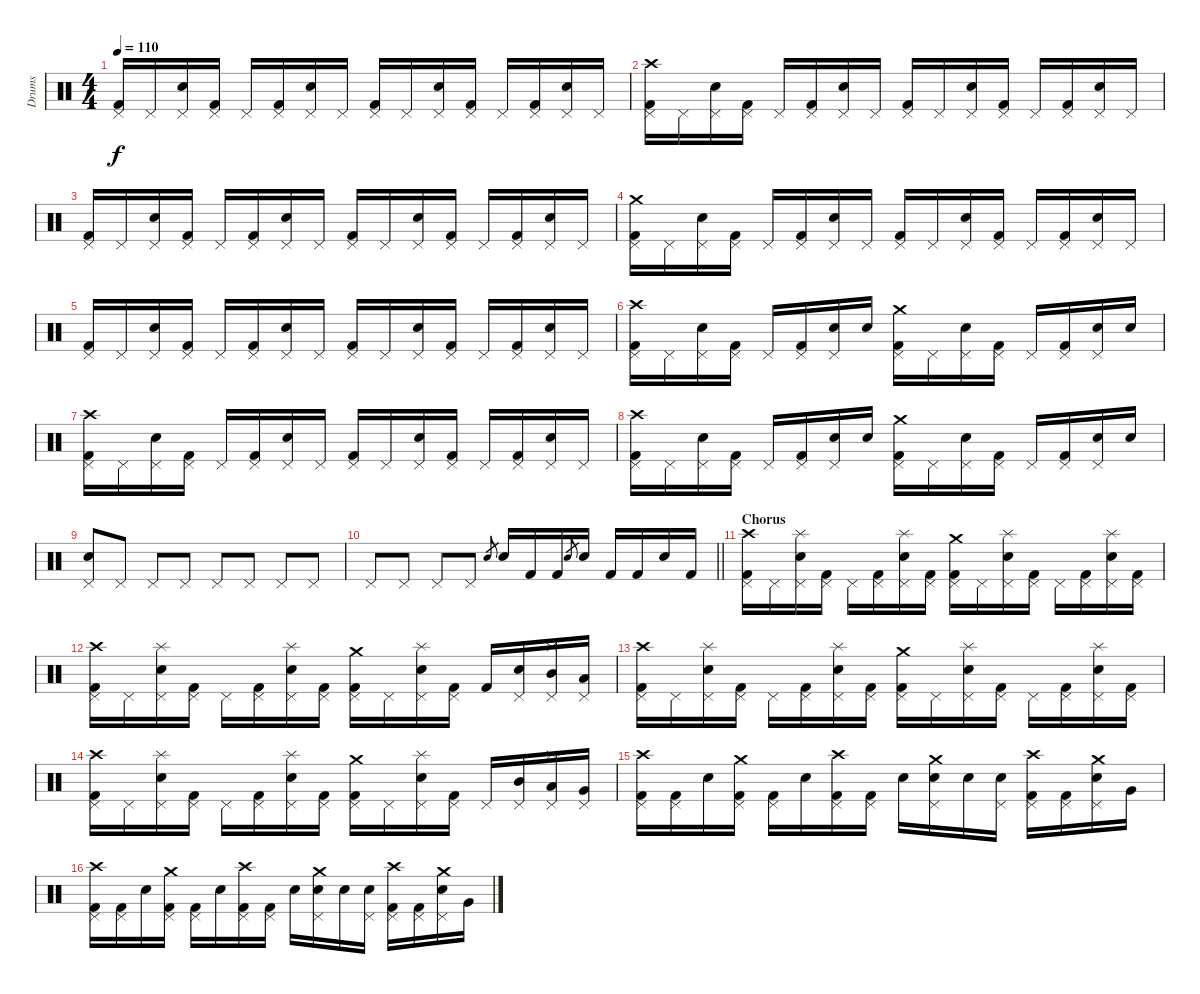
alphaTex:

\track ("Drums" "Drums") {instrument percussion}
\staff {score}
\articulation defaults
\ts (4 4)
\tempo 110
\clef neutral
\ks c
("Kick (hit) 2" "Pedal Hi-Hat (hit)").16{dy f} "Pedal Hi-Hat (hit)".16 ("Snare (hit) 2" "Pedal Hi-Hat (hit)").16 ("Kick (hit) 2" "Pedal Hi-Hat (hit)").16 "Pedal Hi-Hat (hit)".16 ("Kick (hit) 2" "Pedal Hi-Hat (hit)").16 ("Snare (hit) 2" "Pedal Hi-Hat (hit)").16 "Pedal Hi-Hat (hit)".16 ("Kick (hit) 2" "Pedal Hi-Hat (hit)").16 "Pedal Hi-Hat (hit)".16 ("Snare (hit) 2" "Pedal Hi-Hat (hit)").16 ("Kick (hit) 2" "Pedal Hi-Hat (hit)").16 "Pedal Hi-Hat (hit)".16 ("Kick (hit) 2" "Pedal Hi-Hat (hit)").16 ("Snare (hit) 2" "Pedal Hi-Hat (hit)").16 "Pedal Hi-Hat (hit)".16 |
("Kick (hit) 2" "Pedal Hi-Hat (hit)" "Crash high (hit)").16 "Pedal Hi-Hat (hit)".16 ("Snare (hit) 2" "Pedal Hi-Hat (hit)").16 ("Kick (hit) 2" "Pedal Hi-Hat (hit)").16 "Pedal Hi-Hat (hit)".16 ("Kick (hit) 2" "Pedal Hi-Hat (hit)").16 ("Snare (hit) 2" "Pedal Hi-Hat (hit)").16 "Pedal Hi-Hat (hit)".16 ("Kick (hit) 2" "Pedal Hi-Hat (hit)").16 "Pedal Hi-Hat (hit)".16 ("Snare (hit) 2" "Pedal Hi-Hat (hit)").16 ("Kick (hit) 2" "Pedal Hi-Hat (hit)").16 "Pedal Hi-Hat (hit)".16 ("Kick (hit) 2" "Pedal Hi-Hat (hit)").16 ("Snare (hit) 2" "Pedal Hi-Hat (hit)").16 "Pedal Hi-Hat (hit)".16 |
("Kick (hit) 2" "Pedal Hi-Hat (hit)").16 "Pedal Hi-Hat (hit)".16 ("Snare (hit) 2" "Pedal Hi-Hat (hit)").16 ("Kick (hit) 2" "Pedal Hi-Hat (hit)").16 "Pedal Hi-Hat (hit)".16 ("Kick (hit) 2" "Pedal Hi-Hat (hit)").16 ("Snare (hit) 2" "Pedal Hi-Hat (hit)").16 "Pedal Hi-Hat (hit)".16 ("Kick (hit) 2" "Pedal Hi-Hat (hit)").16 "Pedal Hi-Hat (hit)".16 ("Snare (hit) 2" "Pedal Hi-Hat (hit)").16 ("Kick (hit) 2" "Pedal Hi-Hat (hit)").16 "Pedal Hi-Hat (hit)".16 ("Kick (hit) 2" "Pedal Hi-Hat (hit)").16 ("Snare (hit) 2" "Pedal Hi-Hat (hit)").16 "Pedal Hi-Hat (hit)".16 |
("Kick (hit) 2" "Pedal Hi-Hat (hit)" "Crash medium (hit)").16 "Pedal Hi-Hat (hit)".16 ("Snare (hit) 2" "Pedal Hi-Hat (hit)").16 ("Kick (hit) 2" "Pedal Hi-Hat (hit)").16 "Pedal Hi-Hat (hit)".16 ("Kick (hit) 2" "Pedal Hi-Hat (hit)").16 ("Snare (hit) 2" "Pedal Hi-Hat (hit)").16 "Pedal Hi-Hat (hit)".16 ("Kick (hit) 2" "Pedal Hi-Hat (hit)").16 "Pedal Hi-Hat (hit)".16 ("Snare (hit) 2" "Pedal Hi-Hat (hit)").16 ("Kick (hit) 2" "Pedal Hi-Hat (hit)").16 "Pedal Hi-Hat (hit)".16 ("Kick (hit) 2" "Pedal Hi-Hat (hit)").16 ("Snare (hit) 2" "Pedal Hi-Hat (hit)").16 "Pedal Hi-Hat (hit)".16 |
("Kick (hit) 2" "Pedal Hi-Hat (hit)").16 "Pedal Hi-Hat (hit)".16 ("Snare (hit) 2" "Pedal Hi-Hat (hit)").16 ("Kick (hit) 2" "Pedal Hi-Hat (hit)").16 "Pedal Hi-Hat (hit)".16 ("Kick (hit) 2" "Pedal Hi-Hat (hit)").16 ("Snare (hit) 2" "Pedal Hi-Hat (hit)").16 "Pedal Hi-Hat (hit)".16 ("Kick (hit) 2" "Pedal Hi-Hat (hit)").16 "Pedal Hi-Hat (hit)".16 ("Snare (hit) 2" "Pedal Hi-Hat (hit)").16 ("Kick (hit) 2" "Pedal Hi-Hat (hit)").16 "Pedal Hi-Hat (hit)".16 ("Kick (hit) 2" "Pedal Hi-Hat (hit)").16 ("Snare (hit) 2" "Pedal Hi-Hat (hit)").16 "Pedal Hi-Hat (hit)".16 |
("Kick (hit) 2" "Pedal Hi-Hat (hit)" "Crash high (hit)").16 "Pedal Hi-Hat (hit)".16 ("Snare (hit) 2" "Pedal Hi-Hat (hit)").16 ("Kick (hit) 2" "Pedal Hi-Hat (hit)").16 "Pedal Hi-Hat (hit)".16 ("Kick (hit) 2" "Pedal Hi-Hat (hit)").16 ("Snare (hit) 2" "Pedal Hi-Hat (hit)").16 "Snare (hit) 2".16 ("Kick (hit) 2" "Pedal Hi-Hat (hit)" "Crash medium (hit)").16 "Pedal Hi-Hat (hit)".16 ("Snare (hit) 2" "Pedal Hi-Hat (hit)").16 ("Kick (hit) 2" "Pedal Hi-Hat (hit)").16 "Pedal Hi-Hat (hit)".16 ("Kick (hit) 2" "Pedal Hi-Hat (hit)").16 ("Snare (hit) 2" "Pedal Hi-Hat (hit)").16 "Snare (hit) 2".16 |
("Kick (hit) 2" "Pedal Hi-Hat (hit)" "Crash high (hit)").16 "Pedal Hi-Hat (hit)".16 ("Snare (hit) 2" "Pedal Hi-Hat (hit)").16 ("Kick (hit) 2" "Pedal Hi-Hat (hit)").16 "Pedal Hi-Hat (hit)".16 ("Kick (hit) 2" "Pedal Hi-Hat (hit)").16 ("Snare (hit) 2" "Pedal Hi-Hat (hit)").16 "Pedal Hi-Hat (hit)".16 ("Kick (hit) 2" "Pedal Hi-Hat (hit)").16 "Pedal Hi-Hat (hit)".16 ("Snare (hit) 2" "Pedal Hi-Hat (hit)").16 ("Kick (hit) 2" "Pedal Hi-Hat (hit)").16 "Pedal Hi-Hat (hit)".16 ("Kick (hit) 2" "Pedal Hi-Hat (hit)").16 ("Snare (hit) 2" "Pedal Hi-Hat (hit)").16 "Pedal Hi-Hat (hit)".16 |
("Kick (hit) 2" "Pedal Hi-Hat (hit)" "Crash high (hit)").16 "Pedal Hi-Hat (hit)".16 ("Snare (hit) 2" "Pedal Hi-Hat (hit)").16 ("Kick (hit) 2" "Pedal Hi-Hat (hit)").16 "Pedal Hi-Hat (hit)".16 ("Kick (hit) 2" "Pedal Hi-Hat (hit)").16 ("Snare (hit) 2" "Pedal Hi-Hat (hit)").16 "Snare (hit) 2".16 ("Kick (hit) 2" "Pedal Hi-Hat (hit)" "Crash medium (hit)").16 "Pedal Hi-Hat (hit)".16 ("Snare (hit) 2" "Pedal Hi-Hat (hit)").16 ("Kick (hit) 2" "Pedal Hi-Hat (hit)").16 "Pedal Hi-Hat (hit)".16 ("Kick (hit) 2" "Pedal Hi-Hat (hit)").16 ("Snare (hit) 2" "Pedal Hi-Hat (hit)").16 "Snare (hit) 2".16 |
("Snare (hit) 2" "Pedal Hi-Hat (hit)").8 "Pedal Hi-Hat (hit)".8 "Pedal Hi-Hat (hit)".8 "Pedal Hi-Hat (hit)".8 "Pedal Hi-Hat (hit)".8 "Pedal Hi-Hat (hit)".8 "Pedal Hi-Hat (hit)".8 "Pedal Hi-Hat (hit)".8 |
\barLineRight lightlight "Pedal Hi-Hat (hit)".8 "Pedal Hi-Hat (hit)".8 "Pedal Hi-Hat (hit)".8 "Pedal Hi-Hat (hit)".8 "Snare (hit) 2".8{gr} "Snare (hit) 2".16 "Kick (hit) 2".16 "Kick (hit) 2".16 "Snare (hit) 2".8{gr} "Snare (hit) 2".16 "Kick (hit) 2".16 "Kick (hit) 2".16 "Snare (hit) 2".16 "Kick (hit) 2".16
|
\section ("" "Chorus")
("Kick (hit) 2" "Pedal Hi-Hat (hit)" "Crash high (hit)").16 "Pedal Hi-Hat (hit)".16 ("Snare (hit) 2" "Pedal Hi-Hat (hit)" "Splash (hit)").16 ("Kick (hit) 2" "Pedal Hi-Hat (hit)").16 "Pedal Hi-Hat (hit)".16 ("Kick (hit) 2" "Pedal Hi-Hat (hit)").16 ("Snare (hit) 2" "Pedal Hi-Hat (hit)" "Splash (hit)").16 ("Kick (hit) 2" "Pedal Hi-Hat (hit)").16 ("Kick (hit) 2" "Pedal Hi-Hat (hit)" "Crash medium (hit)").16 "Pedal Hi-Hat (hit)".16 ("Snare (hit) 2" "Pedal Hi-Hat (hit)" "Splash (hit)").16 ("Kick (hit) 2" "Pedal Hi-Hat (hit)").16 "Pedal Hi-Hat (hit)".16 ("Kick (hit) 2" "Pedal Hi-Hat (hit)").16 ("Snare (hit) 2" "Pedal Hi-Hat (hit)" "Splash (hit)").16 ("Kick (hit) 2" "Pedal Hi-Hat (hit)").16 |
("Kick (hit) 2" "Pedal Hi-Hat (hit)" "Crash high (hit)").16 "Pedal Hi-Hat (hit)".16 ("Snare (hit) 2" "Pedal Hi-Hat (hit)" "Splash (hit)").16 ("Kick (hit) 2" "Pedal Hi-Hat (hit)").16 "Pedal Hi-Hat (hit)".16 ("Kick (hit) 2" "Pedal Hi-Hat (hit)").16 ("Snare (hit) 2" "Pedal Hi-Hat (hit)" "Splash (hit)").16 ("Kick (hit) 2" "Pedal Hi-Hat (hit)").16 ("Kick (hit) 2" "Pedal Hi-Hat (hit)" "Crash medium (hit)").16 "Pedal Hi-Hat (hit)".16 ("Snare (hit) 2" "Pedal Hi-Hat (hit)" "Splash (hit)").16 ("Kick (hit) 2" "Pedal Hi-Hat (hit)").16 "Kick (hit) 2".16 ("Snare (hit) 2" "Pedal Hi-Hat (hit)").16 ("Mid Tom (hit)" "Pedal Hi-Hat (hit)" "Splash (hit)").16 ("Low Tom (hit)" "Pedal Hi-Hat (hit)").16 |
("Kick (hit) 2" "Pedal Hi-Hat (hit)" "Crash high (hit)").16 "Pedal Hi-Hat (hit)".16 ("Snare (hit) 2" "Pedal Hi-Hat (hit)" "Splash (hit)").16 ("Kick (hit) 2" "Pedal Hi-Hat (hit)").16 "Pedal Hi-Hat (hit)".16 ("Kick (hit) 2" "Pedal Hi-Hat (hit)").16 ("Snare (hit) 2" "Pedal Hi-Hat (hit)" "Splash (hit)").16 ("Kick (hit) 2" "Pedal Hi-Hat (hit)").16 ("Kick (hit) 2" "Pedal Hi-Hat (hit)" "Crash medium (hit)").16 "Pedal Hi-Hat (hit)".16 ("Snare (hit) 2" "Pedal Hi-Hat (hit)" "Splash (hit)").16 ("Kick (hit) 2" "Pedal Hi-Hat (hit)").16 "Pedal Hi-Hat (hit)".16 ("Kick (hit) 2" "Pedal Hi-Hat (hit)").16 ("Snare (hit) 2" "Pedal Hi-Hat (hit)" "Splash (hit)").16 ("Kick (hit) 2" "Pedal Hi-Hat (hit)").16 |
("Kick (hit) 2" "Pedal Hi-Hat (hit)" "Crash high (hit)").16 "Pedal Hi-Hat (hit)".16 ("Snare (hit) 2" "Pedal Hi-Hat (hit)" "Splash (hit)").16 ("Kick (hit) 2" "Pedal Hi-Hat (hit)").16 "Pedal Hi-Hat (hit)".16 ("Kick (hit) 2" "Pedal Hi-Hat (hit)").16 ("Snare (hit) 2" "Pedal Hi-Hat (hit)" "Splash (hit)").16 ("Kick (hit) 2" "Pedal Hi-Hat (hit)").16 ("Kick (hit) 2" "Pedal Hi-Hat (hit)" "Crash medium (hit)").16 "Pedal Hi-Hat (hit)".16 ("Snare (hit) 2" "Pedal Hi-Hat (hit)" "Splash (hit)").16 ("Kick (hit) 2" "Pedal Hi-Hat (hit)").16 "Pedal Hi-Hat (hit)".16 ("Mid Tom (hit)" "Pedal Hi-Hat (hit)").16 ("Low Tom (hit)" "Pedal Hi-Hat (hit)" "Splash (hit)").16 ("Very Low Tom (hit)" "Pedal Hi-Hat (hit)").16 |
("Kick (hit) 2" "Pedal Hi-Hat (hit)" "Crash high (hit)").16 ("Kick (hit) 2" "Pedal Hi-Hat (hit)").16 "Snare (hit) 2".16 ("Kick (hit) 2" "Pedal Hi-Hat (hit)" "Crash medium (hit)").16 ("Kick (hit) 2" "Pedal Hi-Hat (hit)").16 "Snare (hit) 2".16 ("Kick (hit) 2" "Pedal Hi-Hat (hit)" "Crash high (hit)").16 ("Kick (hit) 2" "Pedal Hi-Hat (hit)").16 "Snare (hit) 2".16 ("Snare (hit) 2" "Pedal Hi-Hat (hit)" "Crash medium (hit)").16 "Snare (hit) 2".16 ("Snare (hit) 2" "Pedal Hi-Hat (hit)").16 ("Kick (hit) 2" "Pedal Hi-Hat (hit)" "Crash high (hit)").16 ("Kick (hit) 2" "Pedal Hi-Hat (hit)").16 ("Snare (hit) 2" "Pedal Hi-Hat (hit)" "Crash medium (hit)").16 "Very Low Tom (hit)".16 |
("Kick (hit) 2" "Pedal Hi-Hat (hit)" "Crash high (hit)").16 ("Kick (hit) 2" "Pedal Hi-Hat (hit)").16 "Snare (hit) 2".16 ("Kick (hit) 2" "Pedal Hi-Hat (hit)" "Crash medium (hit)").16 ("Kick (hit) 2" "Pedal Hi-Hat (hit)").16 "Snare (hit) 2".16 ("Kick (hit) 2" "Pedal Hi-Hat (hit)" "Crash high (hit)").16 ("Kick (hit) 2" "Pedal Hi-Hat (hit)").16 "Snare (hit) 2".16 ("Snare (hit) 2" "Pedal Hi-Hat (hit)" "Crash medium (hit)").16 "Snare (hit) 2".16 ("Snare (hit) 2" "Pedal Hi-Hat (hit)").16 ("Kick (hit) 2" "Pedal Hi-Hat (hit)" "Crash high (hit)").16 ("Kick (hit) 2" "Pedal Hi-Hat (hit)").16 ("Snare (hit) 2" "Pedal Hi-Hat (hit)" "Crash medium (hit)").16 "Very Low Tom (hit)".16
